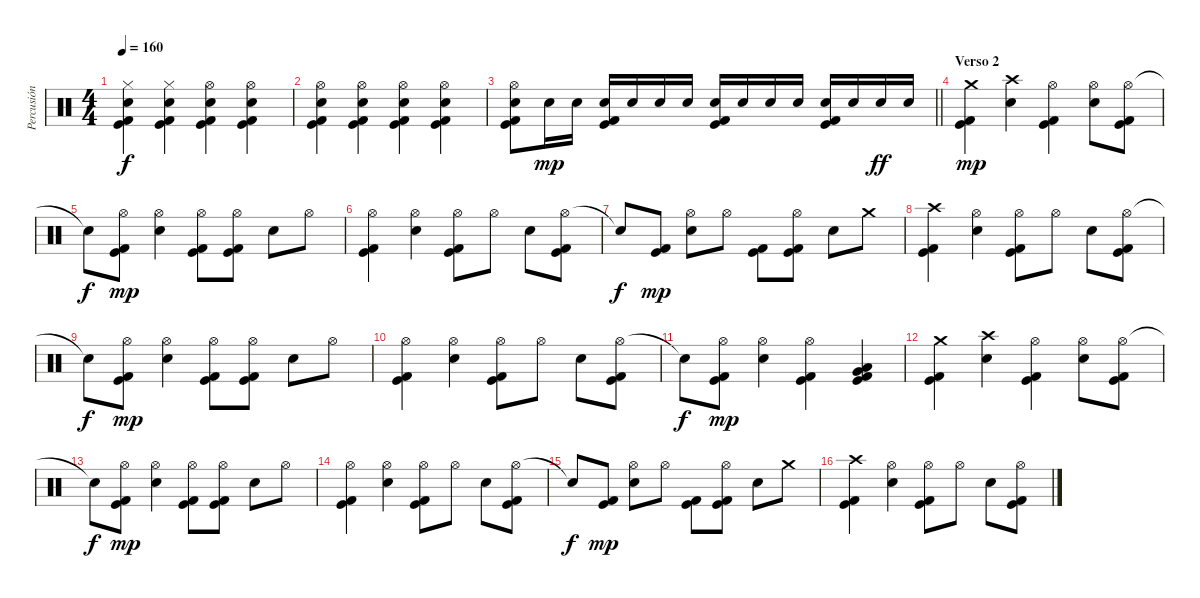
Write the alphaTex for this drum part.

\track ("Percusión" "Percusión") {instrument percussion}
\staff {score}
\articulation defaults
\ts (4 4)
\tempo 160
\clef neutral
\ks c
("Hi-Hat (closed)" "Electric Snare (hit)" "Kick (hit)" "Kick (hit) 2").4{dy f} ("Hi-Hat (closed)" "Electric Snare (hit)" "Kick (hit)" "Kick (hit) 2").4 ("Hi-Hat (open)" "Electric Snare (hit)" "Kick (hit)" "Kick (hit) 2").4 ("Hi-Hat (open)" "Electric Snare (hit)" "Kick (hit)" "Kick (hit) 2").4 |
("Hi-Hat (open)" "Electric Snare (hit)" "Kick (hit)" "Kick (hit) 2").4 ("Hi-Hat (open)" "Electric Snare (hit)" "Kick (hit)" "Kick (hit) 2").4 ("Hi-Hat (open)" "Electric Snare (hit)" "Kick (hit)" "Kick (hit) 2").4 ("Hi-Hat (open)" "Electric Snare (hit)" "Kick (hit)" "Kick (hit) 2").4 |
\barLineRight lightlight
("Hi-Hat (open)" "Electric Snare (hit)" "Kick (hit)" "Kick (hit) 2").8 "Electric Snare (hit)".16{dy mp} "Electric Snare (hit)".16 ("Electric Snare (hit)" "Kick (hit)" "Kick (hit) 2").16 "Electric Snare (hit)".16 "Electric Snare (hit)".16 "Electric Snare (hit)".16 ("Electric Snare (hit)" "Kick (hit)" "Kick (hit) 2").16 "Electric Snare (hit)".16 "Electric Snare (hit)".16 "Electric Snare (hit)".16 ("Electric Snare (hit)" "Kick (hit)" "Kick (hit) 2").16 "Electric Snare (hit)".16 "Electric Snare (hit)".16{dy ff} "Electric Snare (hit)".16 |
\section ("" "Verso 2")
("Crash medium (hit)" "Kick (hit)" "Kick (hit) 2").4{dy mp} ("Crash high (hit)" "Electric Snare (hit)").4 ("Hi-Hat (open)" "Kick (hit)" "Kick (hit) 2").4 ("Hi-Hat (open)" "Electric Snare (hit)").8 ("Hi-Hat (open)" "Kick (hit)" "Kick (hit) 2").8 |
"Snare (hit)"{t}.8{dy f} ("Hi-Hat (open)" "Kick (hit)" "Kick (hit) 2").8{dy mp} ("Hi-Hat (open)" "Electric Snare (hit)").4 ("Hi-Hat (open)" "Kick (hit)" "Kick (hit) 2").8 ("Hi-Hat (open)" "Kick (hit)" "Kick (hit) 2").8 "Electric Snare (hit)".8 "Hi-Hat (open)".8 |
("Hi-Hat (open)" "Kick (hit)" "Kick (hit) 2").4 ("Hi-Hat (open)" "Electric Snare (hit)").4 ("Hi-Hat (open)" "Kick (hit)" "Kick (hit) 2").8 "Hi-Hat (open)".8 "Electric Snare (hit)".8 ("Hi-Hat (open)" "Kick (hit)" "Kick (hit) 2").8 |
"Snare (hit)"{t}.8{dy f} ("Kick (hit)" "Kick (hit) 2").8{dy mp} ("Hi-Hat (open)" "Electric Snare (hit)").8 "Hi-Hat (open)".8 ("Kick (hit)" "Kick (hit) 2").8 ("Hi-Hat (open)" "Kick (hit)" "Kick (hit) 2").8 "Electric Snare (hit)".8 "Crash medium (hit)".8 |
("Crash high (hit)" "Kick (hit)" "Kick (hit) 2").4 ("Hi-Hat (open)" "Electric Snare (hit)").4 ("Hi-Hat (open)" "Kick (hit)" "Kick (hit) 2").8 "Hi-Hat (open)".8 "Electric Snare (hit)".8 ("Hi-Hat (open)" "Kick (hit)" "Kick (hit) 2").8 |
"Snare (hit)"{t}.8{dy f} ("Hi-Hat (open)" "Kick (hit)" "Kick (hit) 2").8{dy mp} ("Hi-Hat (open)" "Electric Snare (hit)").4 ("Hi-Hat (open)" "Kick (hit)" "Kick (hit) 2").8 ("Hi-Hat (open)" "Kick (hit)" "Kick (hit) 2").8 "Electric Snare (hit)".8 "Hi-Hat (open)".8 |
("Hi-Hat (open)" "Kick (hit)" "Kick (hit) 2").4 ("Hi-Hat (open)" "Electric Snare (hit)").4 ("Hi-Hat (open)" "Kick (hit)" "Kick (hit) 2").8 "Hi-Hat (open)".8 "Electric Snare (hit)".8 ("Hi-Hat (open)" "Kick (hit)" "Kick (hit) 2").8 |
"Snare (hit)"{t}.8{dy f} ("Hi-Hat (open)" "Kick (hit)" "Kick (hit) 2").8{dy mp} ("Hi-Hat (open)" "Electric Snare (hit)").4 ("Hi-Hat (open)" "Kick (hit)" "Kick (hit) 2").4 ("Very Low Tom (hit)" "Low Tom (hit)" "Kick (hit)" "Kick (hit) 2").4 |
("Crash medium (hit)" "Kick (hit)" "Kick (hit) 2").4 ("Crash high (hit)" "Electric Snare (hit)").4 ("Hi-Hat (open)" "Kick (hit)" "Kick (hit) 2").4 ("Hi-Hat (open)" "Electric Snare (hit)").8 ("Hi-Hat (open)" "Kick (hit)" "Kick (hit) 2").8 |
"Snare (hit)"{t}.8{dy f} ("Hi-Hat (open)" "Kick (hit)" "Kick (hit) 2").8{dy mp} ("Hi-Hat (open)" "Electric Snare (hit)").4 ("Hi-Hat (open)" "Kick (hit)" "Kick (hit) 2").8 ("Hi-Hat (open)" "Kick (hit)" "Kick (hit) 2").8 "Electric Snare (hit)".8 "Hi-Hat (open)".8 |
("Hi-Hat (open)" "Kick (hit)" "Kick (hit) 2").4 ("Hi-Hat (open)" "Electric Snare (hit)").4 ("Hi-Hat (open)" "Kick (hit)" "Kick (hit) 2").8 "Hi-Hat (open)".8 "Electric Snare (hit)".8 ("Hi-Hat (open)" "Kick (hit)" "Kick (hit) 2").8 |
"Snare (hit)"{t}.8{dy f} ("Kick (hit)" "Kick (hit) 2").8{dy mp} ("Hi-Hat (open)" "Electric Snare (hit)").8 "Hi-Hat (open)".8 ("Kick (hit)" "Kick (hit) 2").8 ("Hi-Hat (open)" "Kick (hit)" "Kick (hit) 2").8 "Electric Snare (hit)".8 "Crash medium (hit)".8 |
("Crash high (hit)" "Kick (hit)" "Kick (hit) 2").4 ("Hi-Hat (open)" "Electric Snare (hit)").4 ("Hi-Hat (open)" "Kick (hit)" "Kick (hit) 2").8 "Hi-Hat (open)".8 "Electric Snare (hit)".8 ("Hi-Hat (open)" "Kick (hit)" "Kick (hit) 2").8
